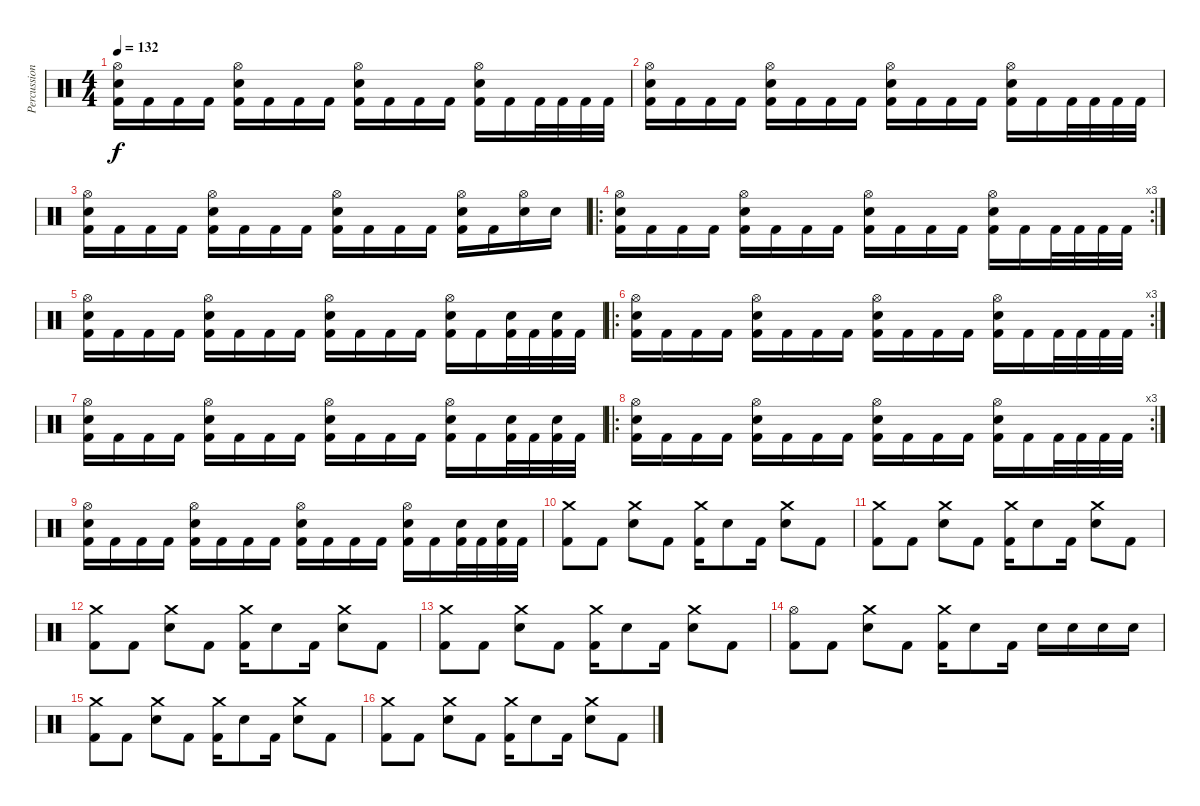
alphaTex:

\track ("Percussion" "Percussion") {instrument percussion}
\staff {score}
\articulation defaults
\ts (4 4)
\tempo 132
\clef neutral
\ks c
("Kick (hit) 2" "Electric Snare (hit)" "Hi-Hat (open)").16{dy f} "Kick (hit) 2".16 "Kick (hit) 2".16 "Kick (hit) 2".16 ("Kick (hit) 2" "Electric Snare (hit)" "Hi-Hat (open)").16 "Kick (hit) 2".16 "Kick (hit) 2".16 "Kick (hit) 2".16 ("Kick (hit) 2" "Electric Snare (hit)" "Hi-Hat (open)").16 "Kick (hit) 2".16 "Kick (hit) 2".16 "Kick (hit) 2".16 ("Kick (hit) 2" "Electric Snare (hit)" "Hi-Hat (open)").16 "Kick (hit) 2".16 "Kick (hit) 2".32 "Kick (hit) 2".32 "Kick (hit) 2".32 "Kick (hit) 2".32 |
("Kick (hit) 2" "Electric Snare (hit)" "Hi-Hat (open)").16 "Kick (hit) 2".16 "Kick (hit) 2".16 "Kick (hit) 2".16 ("Kick (hit) 2" "Electric Snare (hit)" "Hi-Hat (open)").16 "Kick (hit) 2".16 "Kick (hit) 2".16 "Kick (hit) 2".16 ("Kick (hit) 2" "Electric Snare (hit)" "Hi-Hat (open)").16 "Kick (hit) 2".16 "Kick (hit) 2".16 "Kick (hit) 2".16 ("Kick (hit) 2" "Electric Snare (hit)" "Hi-Hat (open)").16 "Kick (hit) 2".16 "Kick (hit) 2".32 "Kick (hit) 2".32 "Kick (hit) 2".32 "Kick (hit) 2".32 |
("Kick (hit) 2" "Electric Snare (hit)" "Hi-Hat (open)").16 "Kick (hit) 2".16 "Kick (hit) 2".16 "Kick (hit) 2".16 ("Kick (hit) 2" "Electric Snare (hit)" "Hi-Hat (open)").16 "Kick (hit) 2".16 "Kick (hit) 2".16 "Kick (hit) 2".16 ("Kick (hit) 2" "Electric Snare (hit)" "Hi-Hat (open)").16 "Kick (hit) 2".16 "Kick (hit) 2".16 "Kick (hit) 2".16 ("Kick (hit) 2" "Electric Snare (hit)" "Hi-Hat (open)").16 "Kick (hit) 2".16 ("Electric Snare (hit)" "Hi-Hat (open)").16 "Electric Snare (hit)".16 |
\ro
\rc 3
("Kick (hit) 2" "Electric Snare (hit)" "Hi-Hat (open)").16 "Kick (hit) 2".16 "Kick (hit) 2".16 "Kick (hit) 2".16 ("Kick (hit) 2" "Electric Snare (hit)" "Hi-Hat (open)").16 "Kick (hit) 2".16 "Kick (hit) 2".16 "Kick (hit) 2".16 ("Kick (hit) 2" "Electric Snare (hit)" "Hi-Hat (open)").16 "Kick (hit) 2".16 "Kick (hit) 2".16 "Kick (hit) 2".16 ("Kick (hit) 2" "Electric Snare (hit)" "Hi-Hat (open)").16 "Kick (hit) 2".16 "Kick (hit) 2".32 "Kick (hit) 2".32 "Kick (hit) 2".32 "Kick (hit) 2".32 |
("Kick (hit) 2" "Electric Snare (hit)" "Hi-Hat (open)").16 "Kick (hit) 2".16 "Kick (hit) 2".16 "Kick (hit) 2".16 ("Kick (hit) 2" "Electric Snare (hit)" "Hi-Hat (open)").16 "Kick (hit) 2".16 "Kick (hit) 2".16 "Kick (hit) 2".16 ("Kick (hit) 2" "Electric Snare (hit)" "Hi-Hat (open)").16 "Kick (hit) 2".16 "Kick (hit) 2".16 "Kick (hit) 2".16 ("Kick (hit) 2" "Electric Snare (hit)" "Hi-Hat (open)").16 "Kick (hit) 2".16 ("Kick (hit) 2" "Electric Snare (hit)").32 "Kick (hit) 2".32 ("Kick (hit) 2" "Electric Snare (hit)").32 "Kick (hit) 2".32 |
\ro
\rc 3
("Kick (hit) 2" "Electric Snare (hit)" "Hi-Hat (open)").16 "Kick (hit) 2".16 "Kick (hit) 2".16 "Kick (hit) 2".16 ("Kick (hit) 2" "Electric Snare (hit)" "Hi-Hat (open)").16 "Kick (hit) 2".16 "Kick (hit) 2".16 "Kick (hit) 2".16 ("Kick (hit) 2" "Electric Snare (hit)" "Hi-Hat (open)").16 "Kick (hit) 2".16 "Kick (hit) 2".16 "Kick (hit) 2".16 ("Kick (hit) 2" "Electric Snare (hit)" "Hi-Hat (open)").16 "Kick (hit) 2".16 "Kick (hit) 2".32 "Kick (hit) 2".32 "Kick (hit) 2".32 "Kick (hit) 2".32 |
("Kick (hit) 2" "Electric Snare (hit)" "Hi-Hat (open)").16 "Kick (hit) 2".16 "Kick (hit) 2".16 "Kick (hit) 2".16 ("Kick (hit) 2" "Electric Snare (hit)" "Hi-Hat (open)").16 "Kick (hit) 2".16 "Kick (hit) 2".16 "Kick (hit) 2".16 ("Kick (hit) 2" "Electric Snare (hit)" "Hi-Hat (open)").16 "Kick (hit) 2".16 "Kick (hit) 2".16 "Kick (hit) 2".16 ("Kick (hit) 2" "Electric Snare (hit)" "Hi-Hat (open)").16 "Kick (hit) 2".16 ("Kick (hit) 2" "Electric Snare (hit)").32 "Kick (hit) 2".32 ("Kick (hit) 2" "Electric Snare (hit)").32 "Kick (hit) 2".32 |
\ro
\rc 3
("Kick (hit) 2" "Electric Snare (hit)" "Hi-Hat (open)").16 "Kick (hit) 2".16 "Kick (hit) 2".16 "Kick (hit) 2".16 ("Kick (hit) 2" "Electric Snare (hit)" "Hi-Hat (open)").16 "Kick (hit) 2".16 "Kick (hit) 2".16 "Kick (hit) 2".16 ("Kick (hit) 2" "Electric Snare (hit)" "Hi-Hat (open)").16 "Kick (hit) 2".16 "Kick (hit) 2".16 "Kick (hit) 2".16 ("Kick (hit) 2" "Electric Snare (hit)" "Hi-Hat (open)").16 "Kick (hit) 2".16 "Kick (hit) 2".32 "Kick (hit) 2".32 "Kick (hit) 2".32 "Kick (hit) 2".32 |
("Kick (hit) 2" "Electric Snare (hit)" "Hi-Hat (open)").16 "Kick (hit) 2".16 "Kick (hit) 2".16 "Kick (hit) 2".16 ("Kick (hit) 2" "Electric Snare (hit)" "Hi-Hat (open)").16 "Kick (hit) 2".16 "Kick (hit) 2".16 "Kick (hit) 2".16 ("Kick (hit) 2" "Electric Snare (hit)" "Hi-Hat (open)").16 "Kick (hit) 2".16 "Kick (hit) 2".16 "Kick (hit) 2".16 ("Kick (hit) 2" "Electric Snare (hit)" "Hi-Hat (open)").16 "Kick (hit) 2".16 ("Kick (hit) 2" "Electric Snare (hit)").32 "Kick (hit) 2".32 ("Kick (hit) 2" "Electric Snare (hit)").32 "Kick (hit) 2".32 |
("Kick (hit) 2" "Crash medium (hit)").8 "Kick (hit) 2".8 ("Electric Snare (hit)" "Crash medium (hit)").8 "Kick (hit) 2".8 ("Kick (hit) 2" "Crash medium (hit)").16 "Electric Snare (hit)".8 "Kick (hit) 2".16 ("Electric Snare (hit)" "Crash medium (hit)").8 "Kick (hit) 2".8 |
("Kick (hit) 2" "Crash medium (hit)").8 "Kick (hit) 2".8 ("Electric Snare (hit)" "Crash medium (hit)").8 "Kick (hit) 2".8 ("Kick (hit) 2" "Crash medium (hit)").16 "Electric Snare (hit)".8 "Kick (hit) 2".16 ("Electric Snare (hit)" "Crash medium (hit)").8 "Kick (hit) 2".8 |
("Kick (hit) 2" "Crash medium (hit)").8 "Kick (hit) 2".8 ("Electric Snare (hit)" "Crash medium (hit)").8 "Kick (hit) 2".8 ("Kick (hit) 2" "Crash medium (hit)").16 "Electric Snare (hit)".8 "Kick (hit) 2".16 ("Electric Snare (hit)" "Crash medium (hit)").8 "Kick (hit) 2".8 |
("Kick (hit) 2" "Crash medium (hit)").8 "Kick (hit) 2".8 ("Electric Snare (hit)" "Crash medium (hit)").8 "Kick (hit) 2".8 ("Kick (hit) 2" "Crash medium (hit)").16 "Electric Snare (hit)".8 "Kick (hit) 2".16 ("Electric Snare (hit)" "Crash medium (hit)").8 "Kick (hit) 2".8 |
("Kick (hit) 2" "Hi-Hat (open)").8 "Kick (hit) 2".8 ("Electric Snare (hit)" "Crash medium (hit)").8 "Kick (hit) 2".8 ("Kick (hit) 2" "Crash medium (hit)").16 "Electric Snare (hit)".8 "Kick (hit) 2".16 "Electric Snare (hit)".16 "Electric Snare (hit)".16 "Electric Snare (hit)".16 "Electric Snare (hit)".16 |
("Kick (hit) 2" "Crash medium (hit)").8 "Kick (hit) 2".8 ("Electric Snare (hit)" "Crash medium (hit)").8 "Kick (hit) 2".8 ("Kick (hit) 2" "Crash medium (hit)").16 "Electric Snare (hit)".8 "Kick (hit) 2".16 ("Electric Snare (hit)" "Crash medium (hit)").8 "Kick (hit) 2".8 |
("Kick (hit) 2" "Crash medium (hit)").8 "Kick (hit) 2".8 ("Electric Snare (hit)" "Crash medium (hit)").8 "Kick (hit) 2".8 ("Kick (hit) 2" "Crash medium (hit)").16 "Electric Snare (hit)".8 "Kick (hit) 2".16 ("Electric Snare (hit)" "Crash medium (hit)").8 "Kick (hit) 2".8
